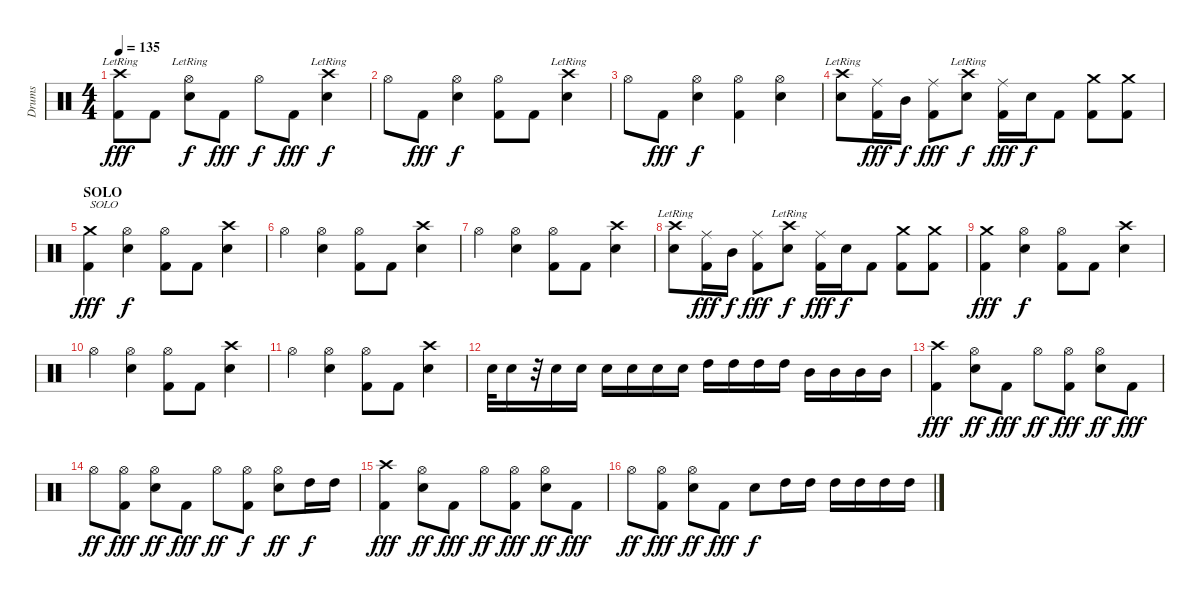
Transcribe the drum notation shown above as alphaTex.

\track ("Drums" "Drums") {instrument percussion}
\staff {score}
\articulation defaults
\ts (4 4)
\tempo 135
\clef neutral
\ks c
("Crash high (hit)"{lr} "Kick (hit) 2").8{dy fff} "Kick (hit) 2".8 ("Hi-Hat (open)"{lr} "Snare (hit) 2").8{dy f} "Kick (hit) 2".8{dy fff} "Hi-Hat (open)".8{dy f} "Kick (hit) 2".8{dy fff} ("Crash high (hit)"{lr} "Snare (hit) 2").4{dy f} |
"Hi-Hat (open)".8 "Kick (hit) 2".8{dy fff} ("Hi-Hat (open)" "Snare (hit) 2").4{dy f} ("Hi-Hat (open)" "Kick (hit) 2").8 "Kick (hit) 2".8 ("Crash high (hit)"{lr} "Snare (hit) 2").4 |
"Hi-Hat (open)".8 "Kick (hit) 2".8{dy fff} ("Hi-Hat (open)" "Snare (hit) 2").4{dy f} ("Hi-Hat (open)" "Kick (hit) 2").4 ("Hi-Hat (open)" "Snare (hit) 2").4 |
("Crash high (hit)"{lr} "Snare (hit) 2").8 ("Ride (middle)" "Kick (hit) 2").16{dy fff} "Mid Tom (hit)".16{dy f} ("Ride (middle)" "Kick (hit) 2").8{dy fff} ("Crash high (hit)"{lr} "Snare (hit) 2").8{dy f} ("Ride (middle)" "Kick (hit) 2").16{dy fff} "Snare (hit) 2".16{dy f} "Kick (hit) 2".8 ("Crash medium (hit)" "Kick (hit) 2").8 ("Crash medium (hit)" "Kick (hit) 2").8 |
\section ("" "SOLO")
("Crash medium (hit)" "Kick (hit) 2").4{txt "SOLO" dy fff} ("Hi-Hat (open)" "Snare (hit) 2").4{dy f} ("Hi-Hat (open)" "Kick (hit) 2").8 "Kick (hit) 2".8 ("Crash high (hit)" "Snare (hit) 2").4 |
"Hi-Hat (open)".4 ("Hi-Hat (open)" "Snare (hit) 2").4 ("Hi-Hat (open)" "Kick (hit) 2").8 "Kick (hit) 2".8 ("Crash high (hit)" "Snare (hit) 2").4 |
"Hi-Hat (open)".4 ("Hi-Hat (open)" "Snare (hit) 2").4 ("Hi-Hat (open)" "Kick (hit) 2").8 "Kick (hit) 2".8 ("Crash high (hit)" "Snare (hit) 2").4 |
("Crash high (hit)"{lr} "Snare (hit) 2").8 ("Ride (middle)" "Kick (hit) 2").16{dy fff} "Mid Tom (hit)".16{dy f} ("Ride (middle)" "Kick (hit) 2").8{dy fff} ("Crash high (hit)"{lr} "Snare (hit) 2").8{dy f} ("Ride (middle)" "Kick (hit) 2").16{dy fff} "Snare (hit) 2".16{dy f} "Kick (hit) 2".8 ("Crash medium (hit)" "Kick (hit) 2").8 ("Crash medium (hit)" "Kick (hit) 2").8 |
("Crash medium (hit)" "Kick (hit) 2").4{dy fff} ("Hi-Hat (open)" "Snare (hit) 2").4{dy f} ("Hi-Hat (open)" "Kick (hit) 2").8 "Kick (hit) 2".8 ("Crash high (hit)" "Snare (hit) 2").4 |
"Hi-Hat (open)".4 ("Hi-Hat (open)" "Snare (hit) 2").4 ("Hi-Hat (open)" "Kick (hit) 2").8 "Kick (hit) 2".8 ("Crash high (hit)" "Snare (hit) 2").4 |
"Hi-Hat (open)".4 ("Hi-Hat (open)" "Snare (hit) 2").4 ("Hi-Hat (open)" "Kick (hit) 2").8 "Kick (hit) 2".8 ("Crash high (hit)" "Snare (hit) 2").4 |
"Snare (hit) 2".32 "Snare (hit) 2".16 r.32 "Snare (hit) 2".16 "Snare (hit) 2".16 "Snare (hit) 2".16 "Snare (hit) 2".16 "Snare (hit) 2".16 "Snare (hit) 2".16 "High Tom (hit)".16 "High Tom (hit)".16 "High Tom (hit)".16 "High Tom (hit)".16 "Mid Tom (hit)".16 "Mid Tom (hit)".16 "Mid Tom (hit)".16 "Mid Tom (hit)".16 |
("Crash high (hit)" "Kick (hit) 2").4{dy fff} ("Hi-Hat (open)" "Snare (hit) 2").8{dy ff} "Kick (hit) 2".8{dy fff} "Hi-Hat (open)".8{dy ff} ("Hi-Hat (open)" "Kick (hit) 2").8{dy fff} ("Hi-Hat (open)" "Snare (hit) 2").8{dy ff} "Kick (hit) 2".8{dy fff} |
"Hi-Hat (open)".8{dy ff} ("Hi-Hat (open)" "Kick (hit) 2").8{dy fff} ("Hi-Hat (open)" "Snare (hit) 2").8{dy ff} "Kick (hit) 2".8{dy fff} "Hi-Hat (open)".8{dy ff} ("Hi-Hat (open)" "Kick (hit) 2").8{dy f} ("Hi-Hat (open)" "Snare (hit) 2").8{dy ff} "High Tom (hit)".16{dy f} "High Tom (hit)".16 |
("Crash high (hit)" "Kick (hit) 2").4{dy fff} ("Hi-Hat (open)" "Snare (hit) 2").8{dy ff} "Kick (hit) 2".8{dy fff} "Hi-Hat (open)".8{dy ff} ("Hi-Hat (open)" "Kick (hit) 2").8{dy fff} ("Hi-Hat (open)" "Snare (hit) 2").8{dy ff} "Kick (hit) 2".8{dy fff} |
"Hi-Hat (open)".8{dy ff} ("Hi-Hat (open)" "Kick (hit) 2").8{dy fff} ("Hi-Hat (open)" "Snare (hit) 2").8{dy ff} "Kick (hit) 2".8{dy fff} "Snare (hit) 2".8{dy f} "High Tom (hit)".16 "High Tom (hit)".16 "High Tom (hit)".16 "High Tom (hit)".16 "High Tom (hit)".16 "High Tom (hit)".16
